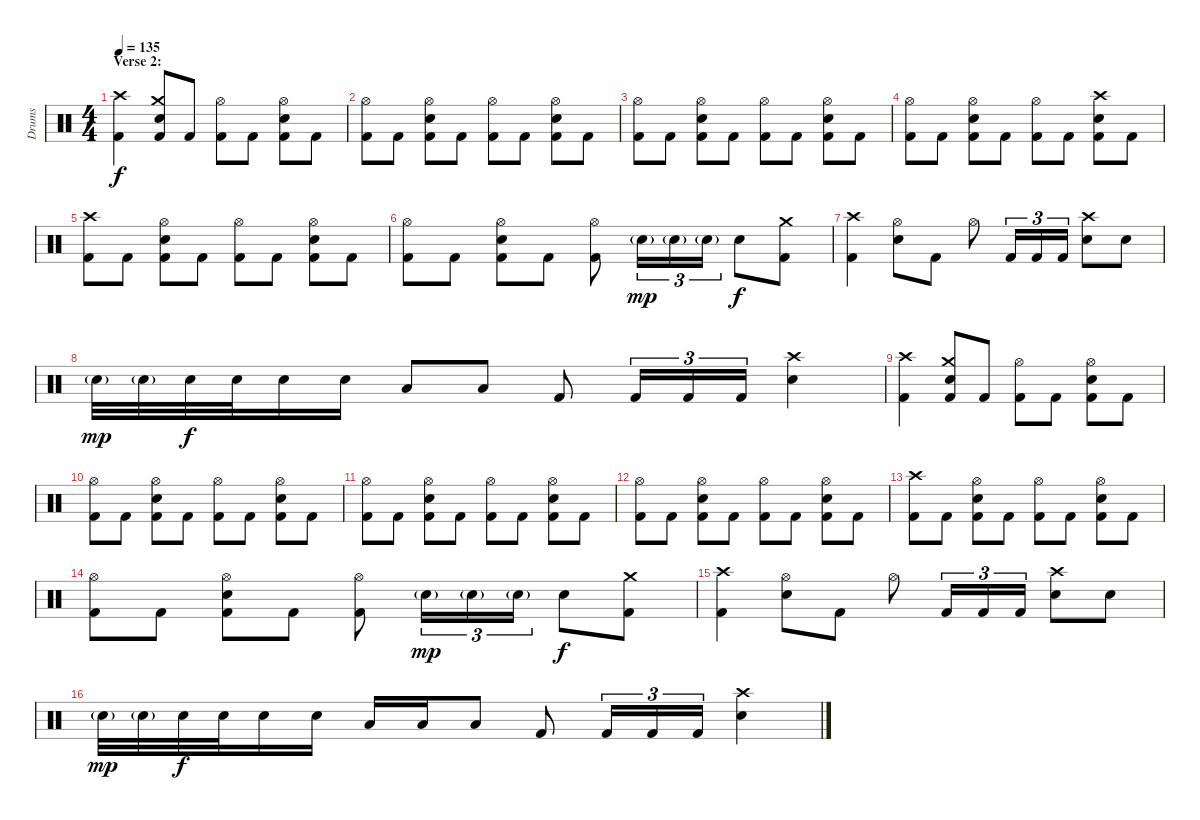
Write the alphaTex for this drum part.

\track ("Drums" "Drums") {instrument percussion}
\staff {score}
\articulation defaults
\ts (4 4)
\section ("" "Verse 2:")
\tempo 135
\clef neutral
\ks c
("Crash high (hit)" "Kick (hit) 2").4{dy f} ("Crash medium (hit)" "Electric Snare (hit)" "Kick (hit) 2").8 "Kick (hit) 2".8 ("Hi-Hat (open)" "Kick (hit) 2").8 "Kick (hit) 2".8 ("Hi-Hat (open)" "Electric Snare (hit)" "Kick (hit) 2").8 "Kick (hit) 2".8 |
("Hi-Hat (open)" "Kick (hit) 2").8 "Kick (hit) 2".8 ("Hi-Hat (open)" "Electric Snare (hit)" "Kick (hit) 2").8 "Kick (hit) 2".8 ("Hi-Hat (open)" "Kick (hit) 2").8 "Kick (hit) 2".8 ("Hi-Hat (open)" "Electric Snare (hit)" "Kick (hit) 2").8 "Kick (hit) 2".8 |
("Hi-Hat (open)" "Kick (hit) 2").8 "Kick (hit) 2".8 ("Hi-Hat (open)" "Electric Snare (hit)" "Kick (hit) 2").8 "Kick (hit) 2".8 ("Hi-Hat (open)" "Kick (hit) 2").8 "Kick (hit) 2".8 ("Hi-Hat (open)" "Electric Snare (hit)" "Kick (hit) 2").8 "Kick (hit) 2".8 |
("Hi-Hat (open)" "Kick (hit) 2").8 "Kick (hit) 2".8 ("Hi-Hat (open)" "Electric Snare (hit)" "Kick (hit) 2").8 "Kick (hit) 2".8 ("Hi-Hat (open)" "Kick (hit) 2").8 "Kick (hit) 2".8 ("Crash high (hit)" "Electric Snare (hit)" "Kick (hit) 2").8 "Kick (hit) 2".8 |
("Crash high (hit)" "Kick (hit) 2").8 "Kick (hit) 2".8 ("Hi-Hat (open)" "Electric Snare (hit)" "Kick (hit) 2").8 "Kick (hit) 2".8 ("Hi-Hat (open)" "Kick (hit) 2").8 "Kick (hit) 2".8 ("Hi-Hat (open)" "Electric Snare (hit)" "Kick (hit) 2").8 "Kick (hit) 2".8 |
("Hi-Hat (open)" "Kick (hit) 2").8 "Kick (hit) 2".8 ("Hi-Hat (open)" "Electric Snare (hit)" "Kick (hit) 2").8 "Kick (hit) 2".8 ("Hi-Hat (open)" "Kick (hit) 2").8 "Electric Snare (hit)"{g}.16{tu (3 2) dy mp} "Electric Snare (hit)"{g}.16{tu (3 2)} "Electric Snare (hit)"{g}.16{tu (3 2)} "Electric Snare (hit)".8{dy f} ("Crash medium (hit)" "Kick (hit) 2").8 |
("Crash high (hit)" "Kick (hit) 2").4 ("Hi-Hat (open)" "Electric Snare (hit)").8 "Kick (hit) 2".8 "Hi-Hat (open)".8 "Kick (hit) 2".16{tu (3 2)} "Kick (hit) 2".16{tu (3 2)} "Kick (hit) 2".16{tu (3 2)} ("Crash high (hit)" "Electric Snare (hit)").8 "Electric Snare (hit)".8 |
"Electric Snare (hit)"{g}.32{dy mp} "Electric Snare (hit)"{g}.32 "Electric Snare (hit)".32{dy f} "Electric Snare (hit)".32 "Electric Snare (hit)".16 "Electric Snare (hit)".16 "Low Tom (hit)".8 "Low Tom (hit)".8 "Kick (hit) 2".8 "Kick (hit) 2".16{tu (3 2)} "Kick (hit) 2".16{tu (3 2)} "Kick (hit) 2".16{tu (3 2)} ("Crash high (hit)" "Electric Snare (hit)").4 |
("Crash high (hit)" "Kick (hit) 2").4 ("Crash medium (hit)" "Electric Snare (hit)" "Kick (hit) 2").8 "Kick (hit) 2".8 ("Hi-Hat (open)" "Kick (hit) 2").8 "Kick (hit) 2".8 ("Hi-Hat (open)" "Electric Snare (hit)" "Kick (hit) 2").8 "Kick (hit) 2".8 |
("Hi-Hat (open)" "Kick (hit) 2").8 "Kick (hit) 2".8 ("Hi-Hat (open)" "Electric Snare (hit)" "Kick (hit) 2").8 "Kick (hit) 2".8 ("Hi-Hat (open)" "Kick (hit) 2").8 "Kick (hit) 2".8 ("Hi-Hat (open)" "Electric Snare (hit)" "Kick (hit) 2").8 "Kick (hit) 2".8 |
("Hi-Hat (open)" "Kick (hit) 2").8 "Kick (hit) 2".8 ("Hi-Hat (open)" "Electric Snare (hit)" "Kick (hit) 2").8 "Kick (hit) 2".8 ("Hi-Hat (open)" "Kick (hit) 2").8 "Kick (hit) 2".8 ("Hi-Hat (open)" "Electric Snare (hit)" "Kick (hit) 2").8 "Kick (hit) 2".8 |
("Hi-Hat (open)" "Kick (hit) 2").8 "Kick (hit) 2".8 ("Hi-Hat (open)" "Electric Snare (hit)" "Kick (hit) 2").8 "Kick (hit) 2".8 ("Hi-Hat (open)" "Kick (hit) 2").8 "Kick (hit) 2".8 ("Hi-Hat (open)" "Electric Snare (hit)" "Kick (hit) 2").8 "Kick (hit) 2".8 |
("Crash high (hit)" "Kick (hit) 2").8 "Kick (hit) 2".8 ("Hi-Hat (open)" "Electric Snare (hit)" "Kick (hit) 2").8 "Kick (hit) 2".8 ("Hi-Hat (open)" "Kick (hit) 2").8 "Kick (hit) 2".8 ("Hi-Hat (open)" "Electric Snare (hit)" "Kick (hit) 2").8 "Kick (hit) 2".8 |
("Hi-Hat (open)" "Kick (hit) 2").8 "Kick (hit) 2".8 ("Hi-Hat (open)" "Electric Snare (hit)" "Kick (hit) 2").8 "Kick (hit) 2".8 ("Hi-Hat (open)" "Kick (hit) 2").8 "Electric Snare (hit)"{g}.16{tu (3 2) dy mp} "Electric Snare (hit)"{g}.16{tu (3 2)} "Electric Snare (hit)"{g}.16{tu (3 2)} "Electric Snare (hit)".8{dy f} ("Crash medium (hit)" "Kick (hit) 2").8 |
("Crash high (hit)" "Kick (hit) 2").4 ("Hi-Hat (open)" "Electric Snare (hit)").8 "Kick (hit) 2".8 "Hi-Hat (open)".8 "Kick (hit) 2".16{tu (3 2)} "Kick (hit) 2".16{tu (3 2)} "Kick (hit) 2".16{tu (3 2)} ("Crash high (hit)" "Electric Snare (hit)").8 "Electric Snare (hit)".8 |
"Electric Snare (hit)"{g}.32{dy mp} "Electric Snare (hit)"{g}.32 "Electric Snare (hit)".32{dy f} "Electric Snare (hit)".32 "Electric Snare (hit)".16 "Electric Snare (hit)".16 "Low Tom (hit)".16 "Low Tom (hit)".16 "Low Tom (hit)".8 "Kick (hit) 2".8 "Kick (hit) 2".16{tu (3 2)} "Kick (hit) 2".16{tu (3 2)} "Kick (hit) 2".16{tu (3 2)} ("Crash high (hit)" "Electric Snare (hit)").4
